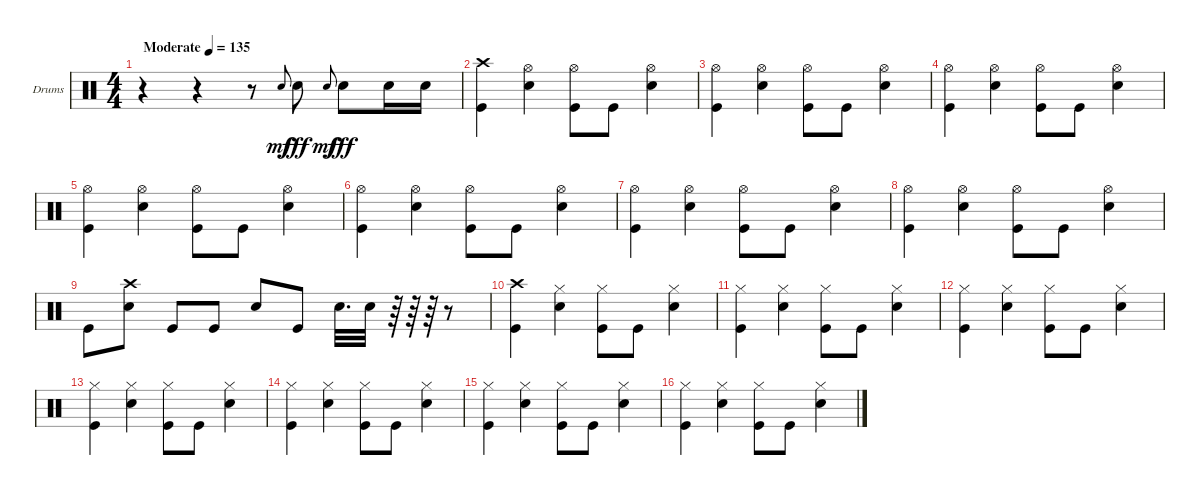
\bracketExtendMode groupsimilarinstruments
\firstSystemTrackNameOrientation horizontal
\otherSystemsTrackNameOrientation horizontal
\track ("Drumkit" "Drums") {instrument percussion}
\staff {score}
\articulation defaults
\ts (4 4)
\beaming (8 2 2 2 2)
\tempo (135 "Moderate")
\clef neutral
\ks c
r.4{dy mf} r.4 r.8 "Snare (hit) 2".8{gr onbeat} "Snare (hit) 2".8{dy fff} "Snare (hit) 2".8{gr onbeat dy mf} "Snare (hit) 2".8{dy fff} "Snare (hit) 2".16 "Snare (hit) 2".16 |
("Kick (hit)" "Crash high (hit)").4 ("Hi-Hat (open)" "Snare (hit) 2").4 ("Kick (hit)" "Hi-Hat (open)").8 "Kick (hit)".8 ("Hi-Hat (open)" "Snare (hit) 2").4 |
("Kick (hit)" "Hi-Hat (open)").4 ("Hi-Hat (open)" "Snare (hit) 2").4 ("Kick (hit)" "Hi-Hat (open)").8 "Kick (hit)".8 ("Hi-Hat (open)" "Snare (hit) 2").4 |
("Kick (hit)" "Hi-Hat (open)").4 ("Hi-Hat (open)" "Snare (hit) 2").4 ("Kick (hit)" "Hi-Hat (open)").8 "Kick (hit)".8 ("Hi-Hat (open)" "Snare (hit) 2").4 |
("Kick (hit)" "Hi-Hat (open)").4 ("Hi-Hat (open)" "Snare (hit) 2").4 ("Kick (hit)" "Hi-Hat (open)").8 "Kick (hit)".8 ("Hi-Hat (open)" "Snare (hit) 2").4 |
("Kick (hit)" "Hi-Hat (open)").4 ("Hi-Hat (open)" "Snare (hit) 2").4 ("Kick (hit)" "Hi-Hat (open)").8 "Kick (hit)".8 ("Hi-Hat (open)" "Snare (hit) 2").4 |
("Kick (hit)" "Hi-Hat (open)").4 ("Hi-Hat (open)" "Snare (hit) 2").4 ("Kick (hit)" "Hi-Hat (open)").8 "Kick (hit)".8 ("Hi-Hat (open)" "Snare (hit) 2").4 |
("Kick (hit)" "Hi-Hat (open)").4 ("Hi-Hat (open)" "Snare (hit) 2").4 ("Kick (hit)" "Hi-Hat (open)").8 "Kick (hit)".8 ("Hi-Hat (open)" "Snare (hit) 2").4 |
"Kick (hit)".8 ("Crash high (hit)" "Snare (hit) 2").8 "Kick (hit)".8 "Kick (hit)".8 "Snare (hit) 2".8 "Kick (hit)".8 "Snare (hit) 2".32{d} "Snare (hit) 2".32 r.64 r.64 r.64 r.8 |
("Kick (hit)" "Crash high (hit)").4 ("Hi-Hat (closed)" "Snare (hit) 2").4 ("Kick (hit)" "Hi-Hat (closed)").8 "Kick (hit)".8 ("Hi-Hat (closed)" "Snare (hit) 2").4 |
("Kick (hit)" "Hi-Hat (closed)").4 ("Hi-Hat (closed)" "Snare (hit) 2").4 ("Kick (hit)" "Hi-Hat (closed)").8 "Kick (hit)".8 ("Hi-Hat (closed)" "Snare (hit) 2").4 |
("Kick (hit)" "Hi-Hat (closed)").4 ("Hi-Hat (closed)" "Snare (hit) 2").4 ("Kick (hit)" "Hi-Hat (closed)").8 "Kick (hit)".8 ("Hi-Hat (closed)" "Snare (hit) 2").4 |
("Kick (hit)" "Hi-Hat (closed)").4 ("Hi-Hat (closed)" "Snare (hit) 2").4 ("Kick (hit)" "Hi-Hat (closed)").8 "Kick (hit)".8 ("Hi-Hat (closed)" "Snare (hit) 2").4 |
("Kick (hit)" "Hi-Hat (closed)").4 ("Hi-Hat (closed)" "Snare (hit) 2").4 ("Kick (hit)" "Hi-Hat (closed)").8 "Kick (hit)".8 ("Hi-Hat (closed)" "Snare (hit) 2").4 |
("Kick (hit)" "Hi-Hat (closed)").4 ("Hi-Hat (closed)" "Snare (hit) 2").4 ("Kick (hit)" "Hi-Hat (closed)").8 "Kick (hit)".8 ("Hi-Hat (closed)" "Snare (hit) 2").4 |
("Kick (hit)" "Hi-Hat (closed)").4 ("Hi-Hat (closed)" "Snare (hit) 2").4 ("Kick (hit)" "Hi-Hat (closed)").8 "Kick (hit)".8 ("Hi-Hat (closed)" "Snare (hit) 2").4
